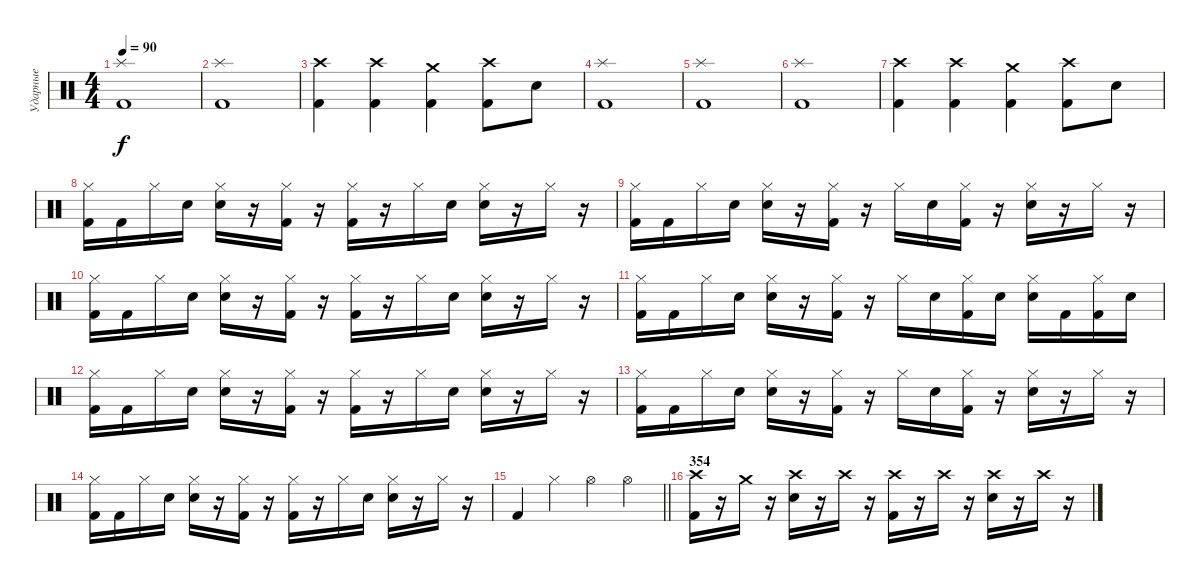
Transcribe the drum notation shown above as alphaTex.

\track ("Ударные" "Ударные") {instrument percussion}
\staff {score}
\articulation defaults
\ts (4 4)
\tempo 90
\clef neutral
\ks c
("Splash (hit)" "Kick (hit) 2").1{dy f} |
("Splash (hit)" "Kick (hit) 2").1 |
("Crash high (hit)" "Kick (hit) 2").4 ("Crash high (hit)" "Kick (hit) 2").4 ("Crash medium (hit)" "Kick (hit) 2").4 ("Crash high (hit)" "Kick (hit) 2").8 "Snare (hit) 2".8 |
("Splash (hit)" "Kick (hit) 2").1 |
("Splash (hit)" "Kick (hit) 2").1 |
("Splash (hit)" "Kick (hit) 2").1 |
("Crash high (hit)" "Kick (hit) 2").4 ("Crash high (hit)" "Kick (hit) 2").4 ("Crash medium (hit)" "Kick (hit) 2").4 ("Crash high (hit)" "Kick (hit) 2").8 "Snare (hit) 2".8 |
("Hi-Hat (closed)" "Kick (hit) 2").16 "Kick (hit) 2".16 "Hi-Hat (closed)".16 "Snare (hit) 2".16 ("Hi-Hat (closed)" "Snare (hit) 2").16 r.16 ("Hi-Hat (closed)" "Kick (hit) 2").16 r.16 ("Hi-Hat (closed)" "Kick (hit) 2").16 r.16 "Hi-Hat (closed)".16 "Snare (hit) 2".16 ("Hi-Hat (closed)" "Snare (hit) 2").16 r.16 "Hi-Hat (closed)".16 r.16 |
("Hi-Hat (closed)" "Kick (hit) 2").16 "Kick (hit) 2".16 "Hi-Hat (closed)".16 "Snare (hit) 2".16 ("Hi-Hat (closed)" "Snare (hit) 2").16 r.16 ("Hi-Hat (closed)" "Kick (hit) 2").16 r.16 "Hi-Hat (closed)".16 "Snare (hit) 2".16 ("Hi-Hat (closed)" "Kick (hit) 2").16 r.16 ("Hi-Hat (closed)" "Snare (hit) 2").16 r.16 "Hi-Hat (closed)".16 r.16 |
("Hi-Hat (closed)" "Kick (hit) 2").16 "Kick (hit) 2".16 "Hi-Hat (closed)".16 "Snare (hit) 2".16 ("Hi-Hat (closed)" "Snare (hit) 2").16 r.16 ("Hi-Hat (closed)" "Kick (hit) 2").16 r.16 ("Hi-Hat (closed)" "Kick (hit) 2").16 r.16 "Hi-Hat (closed)".16 "Snare (hit) 2".16 ("Hi-Hat (closed)" "Snare (hit) 2").16 r.16 "Hi-Hat (closed)".16 r.16 |
("Hi-Hat (closed)" "Kick (hit) 2").16 "Kick (hit) 2".16 "Hi-Hat (closed)".16 "Snare (hit) 2".16 ("Hi-Hat (closed)" "Snare (hit) 2").16 r.16 ("Hi-Hat (closed)" "Kick (hit) 2").16 r.16 "Hi-Hat (closed)".16 "Snare (hit) 2".16 ("Hi-Hat (closed)" "Kick (hit) 2").16 "Snare (hit) 2".16 ("Hi-Hat (closed)" "Snare (hit) 2").16 "Kick (hit) 2".16 ("Hi-Hat (closed)" "Kick (hit) 2").16 "Snare (hit) 2".16 |
("Hi-Hat (closed)" "Kick (hit) 2").16 "Kick (hit) 2".16 "Hi-Hat (closed)".16 "Snare (hit) 2".16 ("Hi-Hat (closed)" "Snare (hit) 2").16 r.16 ("Hi-Hat (closed)" "Kick (hit) 2").16 r.16 ("Hi-Hat (closed)" "Kick (hit) 2").16 r.16 "Hi-Hat (closed)".16 "Snare (hit) 2".16 ("Hi-Hat (closed)" "Snare (hit) 2").16 r.16 "Hi-Hat (closed)".16 r.16 |
("Hi-Hat (closed)" "Kick (hit) 2").16 "Kick (hit) 2".16 "Hi-Hat (closed)".16 "Snare (hit) 2".16 ("Hi-Hat (closed)" "Snare (hit) 2").16 r.16 ("Hi-Hat (closed)" "Kick (hit) 2").16 r.16 "Hi-Hat (closed)".16 "Snare (hit) 2".16 ("Hi-Hat (closed)" "Kick (hit) 2").16 r.16 ("Hi-Hat (closed)" "Snare (hit) 2").16 r.16 "Hi-Hat (closed)".16 r.16 |
("Hi-Hat (closed)" "Kick (hit) 2").16 "Kick (hit) 2".16 "Hi-Hat (closed)".16 "Snare (hit) 2".16 ("Hi-Hat (closed)" "Snare (hit) 2").16 r.16 ("Hi-Hat (closed)" "Kick (hit) 2").16 r.16 ("Hi-Hat (closed)" "Kick (hit) 2").16 r.16 "Hi-Hat (closed)".16 "Snare (hit) 2".16 ("Hi-Hat (closed)" "Snare (hit) 2").16 r.16 "Hi-Hat (closed)".16 r.16 |
\barLineRight lightlight "Kick (hit) 2".4 "Hi-Hat (closed)".4 "Hi-Hat (open)".4 "Hi-Hat (open)".4
|
\section ("" "354")
("Crash high (hit)" "Kick (hit) 2").16 r.16 "Crash medium (hit)".16 r.16 ("Crash high (hit)" "Snare (hit) 2").16 r.16 "Crash high (hit)".16 r.16 ("Crash high (hit)" "Kick (hit) 2").16 r.16 "Crash high (hit)".16 r.16 ("Crash high (hit)" "Snare (hit) 2").16 r.16 "Crash high (hit)".16 r.16
